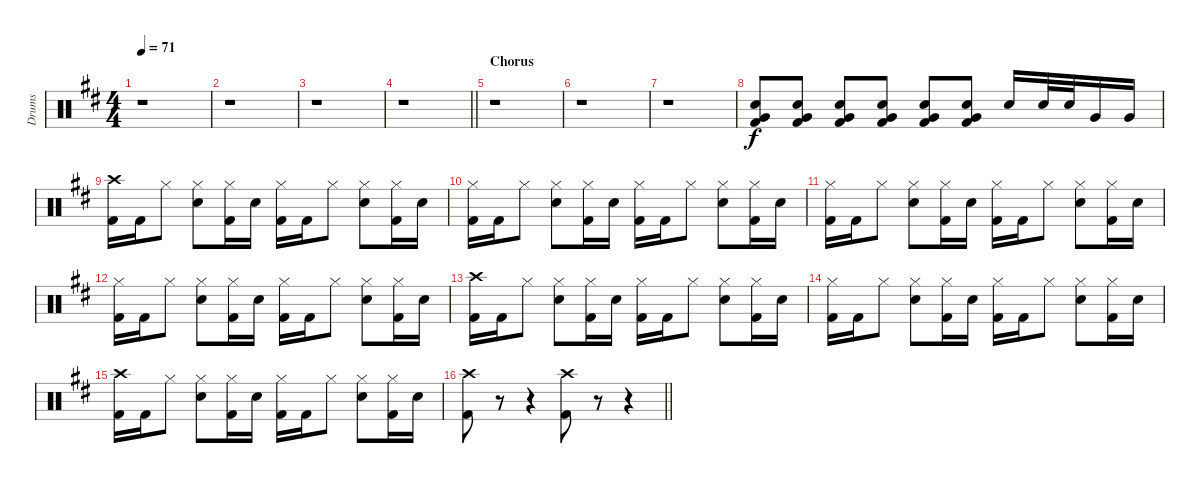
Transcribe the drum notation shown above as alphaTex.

\track ("Drums" "Drums") {instrument percussion}
\staff {score}
\articulation defaults
\ts (4 4)
\tempo 71
\clef neutral
\ks bminor
r.1{dy f} |
r.1 |
r.1 |
\barLineRight lightlight
r.1 |
\section ("" "Chorus")
r.1 |
r.1 |
r.1 |
("Very Low Tom (hit)" "Snare (hit) 2" "Kick (hit) 2").8 ("Very Low Tom (hit)" "Snare (hit) 2" "Kick (hit) 2").8 ("Very Low Tom (hit)" "Snare (hit) 2" "Kick (hit) 2").8 ("Very Low Tom (hit)" "Snare (hit) 2" "Kick (hit) 2").8 ("Very Low Tom (hit)" "Snare (hit) 2" "Kick (hit) 2").8 ("Very Low Tom (hit)" "Snare (hit) 2" "Kick (hit) 2").8 "Snare (hit) 2".16 "Snare (hit) 2".32 "Snare (hit) 2".32 "Very Low Tom (hit)".16 "Very Low Tom (hit)".16 |
("Crash high (hit)" "Kick (hit) 2").16 "Kick (hit) 2".16 "Hi-Hat (closed)".8 ("Hi-Hat (closed)" "Snare (hit) 2").8 ("Hi-Hat (closed)" "Kick (hit) 2").16 "Snare (hit) 2".16 ("Hi-Hat (closed)" "Kick (hit) 2").16 "Kick (hit) 2".16 "Hi-Hat (closed)".8 ("Hi-Hat (closed)" "Snare (hit) 2").8 ("Hi-Hat (closed)" "Kick (hit) 2").16 "Snare (hit) 2".16 |
("Hi-Hat (closed)" "Kick (hit) 2").16 "Kick (hit) 2".16 "Hi-Hat (closed)".8 ("Hi-Hat (closed)" "Snare (hit) 2").8 ("Hi-Hat (closed)" "Kick (hit) 2").16 "Snare (hit) 2".16 ("Hi-Hat (closed)" "Kick (hit) 2").16 "Kick (hit) 2".16 "Hi-Hat (closed)".8 ("Hi-Hat (closed)" "Snare (hit) 2").8 ("Hi-Hat (closed)" "Kick (hit) 2").16 "Snare (hit) 2".16 |
("Hi-Hat (closed)" "Kick (hit) 2").16 "Kick (hit) 2".16 "Hi-Hat (closed)".8 ("Hi-Hat (closed)" "Snare (hit) 2").8 ("Hi-Hat (closed)" "Kick (hit) 2").16 "Snare (hit) 2".16 ("Hi-Hat (closed)" "Kick (hit) 2").16 "Kick (hit) 2".16 "Hi-Hat (closed)".8 ("Hi-Hat (closed)" "Snare (hit) 2").8 ("Hi-Hat (closed)" "Kick (hit) 2").16 "Snare (hit) 2".16 |
("Hi-Hat (closed)" "Kick (hit) 2").16 "Kick (hit) 2".16 "Hi-Hat (closed)".8 ("Hi-Hat (closed)" "Snare (hit) 2").8 ("Hi-Hat (closed)" "Kick (hit) 2").16 "Snare (hit) 2".16 ("Hi-Hat (closed)" "Kick (hit) 2").16 "Kick (hit) 2".16 "Hi-Hat (closed)".8 ("Hi-Hat (closed)" "Snare (hit) 2").8 ("Hi-Hat (closed)" "Kick (hit) 2").16 "Snare (hit) 2".16 |
("Crash high (hit)" "Kick (hit) 2").16 "Kick (hit) 2".16 "Hi-Hat (closed)".8 ("Hi-Hat (closed)" "Snare (hit) 2").8 ("Hi-Hat (closed)" "Kick (hit) 2").16 "Snare (hit) 2".16 ("Hi-Hat (closed)" "Kick (hit) 2").16 "Kick (hit) 2".16 "Hi-Hat (closed)".8 ("Hi-Hat (closed)" "Snare (hit) 2").8 ("Hi-Hat (closed)" "Kick (hit) 2").16 "Snare (hit) 2".16 |
("Hi-Hat (closed)" "Kick (hit) 2").16 "Kick (hit) 2".16 "Hi-Hat (closed)".8 ("Hi-Hat (closed)" "Snare (hit) 2").8 ("Hi-Hat (closed)" "Kick (hit) 2").16 "Snare (hit) 2".16 ("Hi-Hat (closed)" "Kick (hit) 2").16 "Kick (hit) 2".16 "Hi-Hat (closed)".8 ("Hi-Hat (closed)" "Snare (hit) 2").8 ("Hi-Hat (closed)" "Kick (hit) 2").16 "Snare (hit) 2".16 |
("Crash high (hit)" "Kick (hit) 2").16 "Kick (hit) 2".16 "Hi-Hat (closed)".8 ("Hi-Hat (closed)" "Snare (hit) 2").8 ("Hi-Hat (closed)" "Kick (hit) 2").16 "Snare (hit) 2".16 ("Hi-Hat (closed)" "Kick (hit) 2").16 "Kick (hit) 2".16 "Hi-Hat (closed)".8 ("Hi-Hat (closed)" "Snare (hit) 2").8 ("Hi-Hat (closed)" "Kick (hit) 2").16 "Snare (hit) 2".16 |
\barLineRight lightlight
("Crash high (hit)" "Kick (hit) 2").8 r.8 r.4 ("Crash high (hit)" "Kick (hit) 2").8 r.8 r.4
